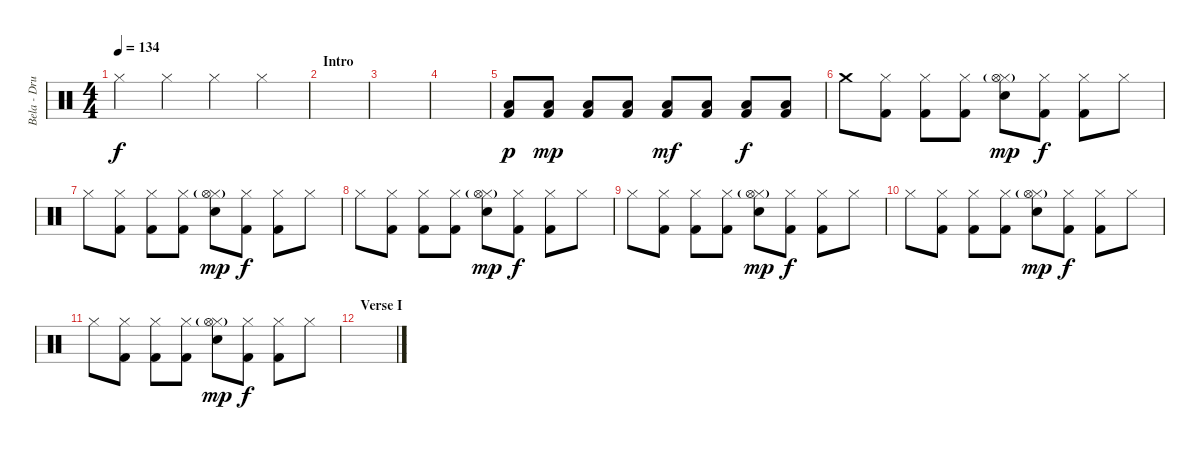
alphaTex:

\track ("Bela - Drums" "Bela - Dru") {instrument percussion}
\staff {score}
\articulation defaults
\ts (4 4)
\tempo 134
\clef neutral
\ks c "Hi-Hat (closed)".4{dy f} "Hi-Hat (closed)".4 "Hi-Hat (closed)".4 "Hi-Hat (closed)".4
|
\section ("" "Intro")
|
|
|
("Low Floor Tom (hit)" "Kick (hit) 2").8{dy p} ("Low Floor Tom (hit)" "Kick (hit) 2").8{dy mp} ("Low Floor Tom (hit)" "Kick (hit) 2").8 ("Low Floor Tom (hit)" "Kick (hit) 2").8 ("Low Floor Tom (hit)" "Kick (hit) 2").8{dy mf} ("Low Floor Tom (hit)" "Kick (hit) 2").8 ("Low Floor Tom (hit)" "Kick (hit) 2").8{dy f} ("Low Floor Tom (hit)" "Kick (hit) 2").8 |
"Crash medium (hit)".8 ("Hi-Hat (closed)" "Kick (hit) 2").8 ("Hi-Hat (closed)" "Kick (hit) 2").8 ("Hi-Hat (closed)" "Kick (hit) 2").8 ("Hi-Hat (closed)" "Hi-Hat (open)"{g} "Electric Snare (hit)").8{dy mp} ("Hi-Hat (closed)" "Kick (hit) 2").8{dy f} ("Hi-Hat (closed)" "Kick (hit) 2").8 "Hi-Hat (closed)".8 |
"Hi-Hat (closed)".8 ("Hi-Hat (closed)" "Kick (hit) 2").8 ("Hi-Hat (closed)" "Kick (hit) 2").8 ("Hi-Hat (closed)" "Kick (hit) 2").8 ("Hi-Hat (closed)" "Hi-Hat (open)"{g} "Electric Snare (hit)").8{dy mp} ("Hi-Hat (closed)" "Kick (hit) 2").8{dy f} ("Hi-Hat (closed)" "Kick (hit) 2").8 "Hi-Hat (closed)".8 |
"Hi-Hat (closed)".8 ("Hi-Hat (closed)" "Kick (hit) 2").8 ("Hi-Hat (closed)" "Kick (hit) 2").8 ("Hi-Hat (closed)" "Kick (hit) 2").8 ("Hi-Hat (closed)" "Hi-Hat (open)"{g} "Electric Snare (hit)").8{dy mp} ("Hi-Hat (closed)" "Kick (hit) 2").8{dy f} ("Hi-Hat (closed)" "Kick (hit) 2").8 "Hi-Hat (closed)".8 |
"Hi-Hat (closed)".8 ("Hi-Hat (closed)" "Kick (hit) 2").8 ("Hi-Hat (closed)" "Kick (hit) 2").8 ("Hi-Hat (closed)" "Kick (hit) 2").8 ("Hi-Hat (closed)" "Hi-Hat (open)"{g} "Electric Snare (hit)").8{dy mp} ("Hi-Hat (closed)" "Kick (hit) 2").8{dy f} ("Hi-Hat (closed)" "Kick (hit) 2").8 "Hi-Hat (closed)".8 |
"Hi-Hat (closed)".8 ("Hi-Hat (closed)" "Kick (hit) 2").8 ("Hi-Hat (closed)" "Kick (hit) 2").8 ("Hi-Hat (closed)" "Kick (hit) 2").8 ("Hi-Hat (closed)" "Hi-Hat (open)"{g} "Electric Snare (hit)").8{dy mp} ("Hi-Hat (closed)" "Kick (hit) 2").8{dy f} ("Hi-Hat (closed)" "Kick (hit) 2").8 "Hi-Hat (closed)".8 |
"Hi-Hat (closed)".8 ("Hi-Hat (closed)" "Kick (hit) 2").8 ("Hi-Hat (closed)" "Kick (hit) 2").8 ("Hi-Hat (closed)" "Kick (hit) 2").8 ("Hi-Hat (closed)" "Hi-Hat (open)"{g} "Electric Snare (hit)").8{dy mp} ("Hi-Hat (closed)" "Kick (hit) 2").8{dy f} ("Hi-Hat (closed)" "Kick (hit) 2").8 "Hi-Hat (closed)".8 |
\section ("" "Verse I")
